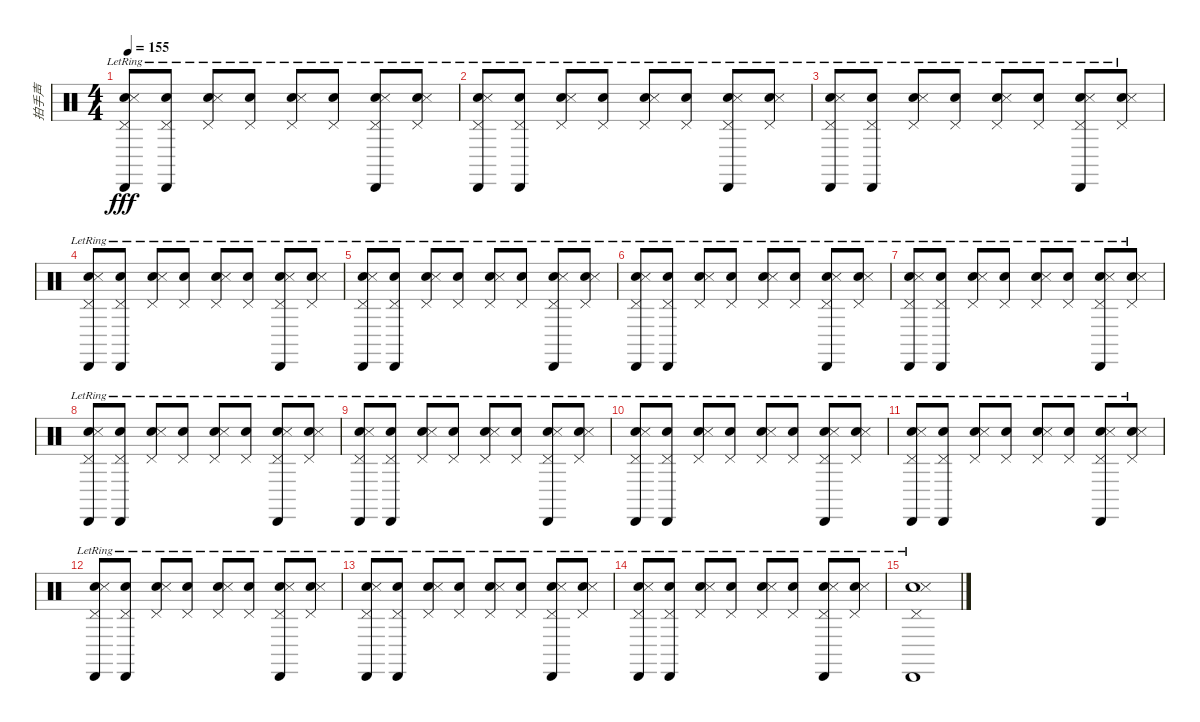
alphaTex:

\track ("拍手声" "拍手声") {instrument percussion}
\staff {score}
\articulation defaults
\ts (4 4)
\tempo 155
\clef neutral
\ks c
("Pedal Hi-Hat (hit)"{lr} "Cabasa (hit)"{lr} "Hand Clap (hit)"{lr} "Snare (side stick) 3"{lr}).8{dy fff} ("Pedal Hi-Hat (hit)"{lr} "Cabasa (hit)"{lr} "Hand Clap (hit)"{lr}).8 ("Pedal Hi-Hat (hit)"{lr} "Hand Clap (hit)"{lr} "Snare (side stick) 3"{lr}).8 ("Pedal Hi-Hat (hit)"{lr} "Hand Clap (hit)"{lr}).8 ("Pedal Hi-Hat (hit)"{lr} "Hand Clap (hit)"{lr} "Snare (side stick) 3"{lr}).8 ("Pedal Hi-Hat (hit)"{lr} "Hand Clap (hit)"{lr}).8 ("Pedal Hi-Hat (hit)"{lr} "Cabasa (hit)"{lr} "Hand Clap (hit)"{lr} "Snare (side stick) 3"{lr}).8 ("Pedal Hi-Hat (hit)"{lr} "Hand Clap (hit)"{lr} "Snare (side stick) 3"{lr}).8 |
("Pedal Hi-Hat (hit)"{lr} "Cabasa (hit)"{lr} "Hand Clap (hit)"{lr} "Snare (side stick) 3"{lr}).8 ("Pedal Hi-Hat (hit)"{lr} "Cabasa (hit)"{lr} "Hand Clap (hit)"{lr}).8 ("Pedal Hi-Hat (hit)"{lr} "Hand Clap (hit)"{lr} "Snare (side stick) 3"{lr}).8 ("Pedal Hi-Hat (hit)"{lr} "Hand Clap (hit)"{lr}).8 ("Pedal Hi-Hat (hit)"{lr} "Hand Clap (hit)"{lr} "Snare (side stick) 3"{lr}).8 ("Pedal Hi-Hat (hit)"{lr} "Hand Clap (hit)"{lr}).8 ("Pedal Hi-Hat (hit)"{lr} "Cabasa (hit)"{lr} "Hand Clap (hit)"{lr} "Snare (side stick) 3"{lr}).8 ("Pedal Hi-Hat (hit)"{lr} "Hand Clap (hit)"{lr} "Snare (side stick) 3"{lr}).8 |
("Pedal Hi-Hat (hit)"{lr} "Cabasa (hit)"{lr} "Hand Clap (hit)"{lr} "Snare (side stick) 3"{lr}).8 ("Pedal Hi-Hat (hit)"{lr} "Cabasa (hit)"{lr} "Hand Clap (hit)"{lr}).8 ("Pedal Hi-Hat (hit)"{lr} "Hand Clap (hit)"{lr} "Snare (side stick) 3"{lr}).8 ("Pedal Hi-Hat (hit)"{lr} "Hand Clap (hit)"{lr}).8 ("Pedal Hi-Hat (hit)"{lr} "Hand Clap (hit)"{lr} "Snare (side stick) 3"{lr}).8 ("Pedal Hi-Hat (hit)"{lr} "Hand Clap (hit)"{lr}).8 ("Pedal Hi-Hat (hit)"{lr} "Cabasa (hit)"{lr} "Hand Clap (hit)"{lr} "Snare (side stick) 3"{lr}).8 ("Pedal Hi-Hat (hit)"{lr} "Hand Clap (hit)"{lr} "Snare (side stick) 3"{lr}).8 |
("Pedal Hi-Hat (hit)"{lr} "Cabasa (hit)"{lr} "Hand Clap (hit)"{lr} "Snare (side stick) 3"{lr}).8 ("Pedal Hi-Hat (hit)"{lr} "Cabasa (hit)"{lr} "Hand Clap (hit)"{lr}).8 ("Pedal Hi-Hat (hit)"{lr} "Hand Clap (hit)"{lr} "Snare (side stick) 3"{lr}).8 ("Pedal Hi-Hat (hit)"{lr} "Hand Clap (hit)"{lr}).8 ("Pedal Hi-Hat (hit)"{lr} "Hand Clap (hit)"{lr} "Snare (side stick) 3"{lr}).8 ("Pedal Hi-Hat (hit)"{lr} "Hand Clap (hit)"{lr}).8 ("Pedal Hi-Hat (hit)"{lr} "Cabasa (hit)"{lr} "Hand Clap (hit)"{lr} "Snare (side stick) 3"{lr}).8 ("Pedal Hi-Hat (hit)"{lr} "Hand Clap (hit)"{lr} "Snare (side stick) 3"{lr}).8 |
("Pedal Hi-Hat (hit)"{lr} "Cabasa (hit)"{lr} "Hand Clap (hit)"{lr} "Snare (side stick) 3"{lr}).8 ("Pedal Hi-Hat (hit)"{lr} "Cabasa (hit)"{lr} "Hand Clap (hit)"{lr}).8 ("Pedal Hi-Hat (hit)"{lr} "Hand Clap (hit)"{lr} "Snare (side stick) 3"{lr}).8 ("Pedal Hi-Hat (hit)"{lr} "Hand Clap (hit)"{lr}).8 ("Pedal Hi-Hat (hit)"{lr} "Hand Clap (hit)"{lr} "Snare (side stick) 3"{lr}).8 ("Pedal Hi-Hat (hit)"{lr} "Hand Clap (hit)"{lr}).8 ("Pedal Hi-Hat (hit)"{lr} "Cabasa (hit)"{lr} "Hand Clap (hit)"{lr} "Snare (side stick) 3"{lr}).8 ("Pedal Hi-Hat (hit)"{lr} "Hand Clap (hit)"{lr} "Snare (side stick) 3"{lr}).8 |
("Pedal Hi-Hat (hit)"{lr} "Cabasa (hit)"{lr} "Hand Clap (hit)"{lr} "Snare (side stick) 3"{lr}).8 ("Pedal Hi-Hat (hit)"{lr} "Cabasa (hit)"{lr} "Hand Clap (hit)"{lr}).8 ("Pedal Hi-Hat (hit)"{lr} "Hand Clap (hit)"{lr} "Snare (side stick) 3"{lr}).8 ("Pedal Hi-Hat (hit)"{lr} "Hand Clap (hit)"{lr}).8 ("Pedal Hi-Hat (hit)"{lr} "Hand Clap (hit)"{lr} "Snare (side stick) 3"{lr}).8 ("Pedal Hi-Hat (hit)"{lr} "Hand Clap (hit)"{lr}).8 ("Pedal Hi-Hat (hit)"{lr} "Cabasa (hit)"{lr} "Hand Clap (hit)"{lr} "Snare (side stick) 3"{lr}).8 ("Pedal Hi-Hat (hit)"{lr} "Hand Clap (hit)"{lr} "Snare (side stick) 3"{lr}).8 |
("Pedal Hi-Hat (hit)"{lr} "Cabasa (hit)"{lr} "Hand Clap (hit)"{lr} "Snare (side stick) 3"{lr}).8 ("Pedal Hi-Hat (hit)"{lr} "Cabasa (hit)"{lr} "Hand Clap (hit)"{lr}).8 ("Pedal Hi-Hat (hit)"{lr} "Hand Clap (hit)"{lr} "Snare (side stick) 3"{lr}).8 ("Pedal Hi-Hat (hit)"{lr} "Hand Clap (hit)"{lr}).8 ("Pedal Hi-Hat (hit)"{lr} "Hand Clap (hit)"{lr} "Snare (side stick) 3"{lr}).8 ("Pedal Hi-Hat (hit)"{lr} "Hand Clap (hit)"{lr}).8 ("Pedal Hi-Hat (hit)"{lr} "Cabasa (hit)"{lr} "Hand Clap (hit)"{lr} "Snare (side stick) 3"{lr}).8 ("Pedal Hi-Hat (hit)"{lr} "Hand Clap (hit)"{lr} "Snare (side stick) 3"{lr}).8 |
("Pedal Hi-Hat (hit)"{lr} "Cabasa (hit)"{lr} "Hand Clap (hit)"{lr} "Snare (side stick) 3"{lr}).8 ("Pedal Hi-Hat (hit)"{lr} "Cabasa (hit)"{lr} "Hand Clap (hit)"{lr}).8 ("Pedal Hi-Hat (hit)"{lr} "Hand Clap (hit)"{lr} "Snare (side stick) 3"{lr}).8 ("Pedal Hi-Hat (hit)"{lr} "Hand Clap (hit)"{lr}).8 ("Pedal Hi-Hat (hit)"{lr} "Hand Clap (hit)"{lr} "Snare (side stick) 3"{lr}).8 ("Pedal Hi-Hat (hit)"{lr} "Hand Clap (hit)"{lr}).8 ("Pedal Hi-Hat (hit)"{lr} "Cabasa (hit)"{lr} "Hand Clap (hit)"{lr} "Snare (side stick) 3"{lr}).8 ("Pedal Hi-Hat (hit)"{lr} "Hand Clap (hit)"{lr} "Snare (side stick) 3"{lr}).8 |
("Pedal Hi-Hat (hit)"{lr} "Cabasa (hit)"{lr} "Hand Clap (hit)"{lr} "Snare (side stick) 3"{lr}).8 ("Pedal Hi-Hat (hit)"{lr} "Cabasa (hit)"{lr} "Hand Clap (hit)"{lr}).8 ("Pedal Hi-Hat (hit)"{lr} "Hand Clap (hit)"{lr} "Snare (side stick) 3"{lr}).8 ("Pedal Hi-Hat (hit)"{lr} "Hand Clap (hit)"{lr}).8 ("Pedal Hi-Hat (hit)"{lr} "Hand Clap (hit)"{lr} "Snare (side stick) 3"{lr}).8 ("Pedal Hi-Hat (hit)"{lr} "Hand Clap (hit)"{lr}).8 ("Pedal Hi-Hat (hit)"{lr} "Cabasa (hit)"{lr} "Hand Clap (hit)"{lr} "Snare (side stick) 3"{lr}).8 ("Pedal Hi-Hat (hit)"{lr} "Hand Clap (hit)"{lr} "Snare (side stick) 3"{lr}).8 |
("Pedal Hi-Hat (hit)"{lr} "Cabasa (hit)"{lr} "Hand Clap (hit)"{lr} "Snare (side stick) 3"{lr}).8 ("Pedal Hi-Hat (hit)"{lr} "Cabasa (hit)"{lr} "Hand Clap (hit)"{lr}).8 ("Pedal Hi-Hat (hit)"{lr} "Hand Clap (hit)"{lr} "Snare (side stick) 3"{lr}).8 ("Pedal Hi-Hat (hit)"{lr} "Hand Clap (hit)"{lr}).8 ("Pedal Hi-Hat (hit)"{lr} "Hand Clap (hit)"{lr} "Snare (side stick) 3"{lr}).8 ("Pedal Hi-Hat (hit)"{lr} "Hand Clap (hit)"{lr}).8 ("Pedal Hi-Hat (hit)"{lr} "Cabasa (hit)"{lr} "Hand Clap (hit)"{lr} "Snare (side stick) 3"{lr}).8 ("Pedal Hi-Hat (hit)"{lr} "Hand Clap (hit)"{lr} "Snare (side stick) 3"{lr}).8 |
("Pedal Hi-Hat (hit)"{lr} "Cabasa (hit)"{lr} "Hand Clap (hit)"{lr} "Snare (side stick) 3"{lr}).8 ("Pedal Hi-Hat (hit)"{lr} "Cabasa (hit)"{lr} "Hand Clap (hit)"{lr}).8 ("Pedal Hi-Hat (hit)"{lr} "Hand Clap (hit)"{lr} "Snare (side stick) 3"{lr}).8 ("Pedal Hi-Hat (hit)"{lr} "Hand Clap (hit)"{lr}).8 ("Pedal Hi-Hat (hit)"{lr} "Hand Clap (hit)"{lr} "Snare (side stick) 3"{lr}).8 ("Pedal Hi-Hat (hit)"{lr} "Hand Clap (hit)"{lr}).8 ("Pedal Hi-Hat (hit)"{lr} "Cabasa (hit)"{lr} "Hand Clap (hit)"{lr} "Snare (side stick) 3"{lr}).8 ("Pedal Hi-Hat (hit)"{lr} "Hand Clap (hit)"{lr} "Snare (side stick) 3"{lr}).8 |
("Pedal Hi-Hat (hit)"{lr} "Cabasa (hit)"{lr} "Hand Clap (hit)"{lr} "Snare (side stick) 3"{lr}).8 ("Pedal Hi-Hat (hit)"{lr} "Cabasa (hit)"{lr} "Hand Clap (hit)"{lr}).8 ("Pedal Hi-Hat (hit)"{lr} "Hand Clap (hit)"{lr} "Snare (side stick) 3"{lr}).8 ("Pedal Hi-Hat (hit)"{lr} "Hand Clap (hit)"{lr}).8 ("Pedal Hi-Hat (hit)"{lr} "Hand Clap (hit)"{lr} "Snare (side stick) 3"{lr}).8 ("Pedal Hi-Hat (hit)"{lr} "Hand Clap (hit)"{lr}).8 ("Pedal Hi-Hat (hit)"{lr} "Cabasa (hit)"{lr} "Hand Clap (hit)"{lr} "Snare (side stick) 3"{lr}).8 ("Pedal Hi-Hat (hit)"{lr} "Hand Clap (hit)"{lr} "Snare (side stick) 3"{lr}).8 |
("Pedal Hi-Hat (hit)"{lr} "Cabasa (hit)"{lr} "Hand Clap (hit)"{lr} "Snare (side stick) 3"{lr}).8 ("Pedal Hi-Hat (hit)"{lr} "Cabasa (hit)"{lr} "Hand Clap (hit)"{lr}).8 ("Pedal Hi-Hat (hit)"{lr} "Hand Clap (hit)"{lr} "Snare (side stick) 3"{lr}).8 ("Pedal Hi-Hat (hit)"{lr} "Hand Clap (hit)"{lr}).8 ("Pedal Hi-Hat (hit)"{lr} "Hand Clap (hit)"{lr} "Snare (side stick) 3"{lr}).8 ("Pedal Hi-Hat (hit)"{lr} "Hand Clap (hit)"{lr}).8 ("Pedal Hi-Hat (hit)"{lr} "Cabasa (hit)"{lr} "Hand Clap (hit)"{lr} "Snare (side stick) 3"{lr}).8 ("Pedal Hi-Hat (hit)"{lr} "Hand Clap (hit)"{lr} "Snare (side stick) 3"{lr}).8 |
("Pedal Hi-Hat (hit)"{lr} "Cabasa (hit)"{lr} "Hand Clap (hit)"{lr} "Snare (side stick) 3"{lr}).8 ("Pedal Hi-Hat (hit)"{lr} "Cabasa (hit)"{lr} "Hand Clap (hit)"{lr}).8 ("Pedal Hi-Hat (hit)"{lr} "Hand Clap (hit)"{lr} "Snare (side stick) 3"{lr}).8 ("Pedal Hi-Hat (hit)"{lr} "Hand Clap (hit)"{lr}).8 ("Pedal Hi-Hat (hit)"{lr} "Hand Clap (hit)"{lr} "Snare (side stick) 3"{lr}).8 ("Pedal Hi-Hat (hit)"{lr} "Hand Clap (hit)"{lr}).8 ("Pedal Hi-Hat (hit)"{lr} "Cabasa (hit)"{lr} "Hand Clap (hit)"{lr} "Snare (side stick) 3"{lr}).8 ("Pedal Hi-Hat (hit)"{lr} "Hand Clap (hit)"{lr} "Snare (side stick) 3"{lr}).8 |
("Pedal Hi-Hat (hit)"{lr} "Cabasa (hit)"{lr} "Hand Clap (hit)"{lr} "Snare (side stick) 3"{lr}).1
